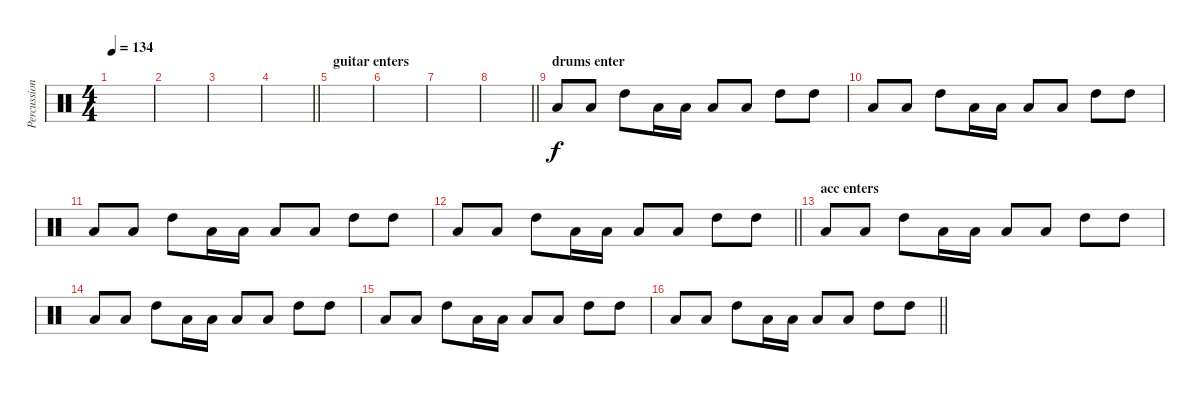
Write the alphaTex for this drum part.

\track ("Percussion" "Percussion") {instrument percussion}
\staff {score}
\articulation defaults
\ts (4 4)
\tempo 134
\clef neutral
\ks c
|
|
|
\barLineRight lightlight
|
\section ("" "guitar enters")
|
|
|
\barLineRight lightlight
|
\section ("" "drums enter")
"Low Tom (hit)".8 "Low Tom (hit)".8 "High Tom (hit)".8 "Low Tom (hit)".16 "Low Tom (hit)".16 "Low Tom (hit)".8 "Low Tom (hit)".8 "High Tom (hit)".8 "High Tom (hit)".8 |
"Low Tom (hit)".8 "Low Tom (hit)".8 "High Tom (hit)".8 "Low Tom (hit)".16 "Low Tom (hit)".16 "Low Tom (hit)".8 "Low Tom (hit)".8 "High Tom (hit)".8 "High Tom (hit)".8 |
"Low Tom (hit)".8 "Low Tom (hit)".8 "High Tom (hit)".8 "Low Tom (hit)".16 "Low Tom (hit)".16 "Low Tom (hit)".8 "Low Tom (hit)".8 "High Tom (hit)".8 "High Tom (hit)".8 |
\barLineRight lightlight "Low Tom (hit)".8 "Low Tom (hit)".8 "High Tom (hit)".8 "Low Tom (hit)".16 "Low Tom (hit)".16 "Low Tom (hit)".8 "Low Tom (hit)".8 "High Tom (hit)".8 "High Tom (hit)".8
|
\section ("" "acc enters")
"Low Tom (hit)".8 "Low Tom (hit)".8 "High Tom (hit)".8 "Low Tom (hit)".16 "Low Tom (hit)".16 "Low Tom (hit)".8 "Low Tom (hit)".8 "High Tom (hit)".8 "High Tom (hit)".8 |
"Low Tom (hit)".8 "Low Tom (hit)".8 "High Tom (hit)".8 "Low Tom (hit)".16 "Low Tom (hit)".16 "Low Tom (hit)".8 "Low Tom (hit)".8 "High Tom (hit)".8 "High Tom (hit)".8 |
"Low Tom (hit)".8 "Low Tom (hit)".8 "High Tom (hit)".8 "Low Tom (hit)".16 "Low Tom (hit)".16 "Low Tom (hit)".8 "Low Tom (hit)".8 "High Tom (hit)".8 "High Tom (hit)".8 |
\barLineRight lightlight "Low Tom (hit)".8 "Low Tom (hit)".8 "High Tom (hit)".8 "Low Tom (hit)".16 "Low Tom (hit)".16 "Low Tom (hit)".8 "Low Tom (hit)".8 "High Tom (hit)".8 "High Tom (hit)".8
